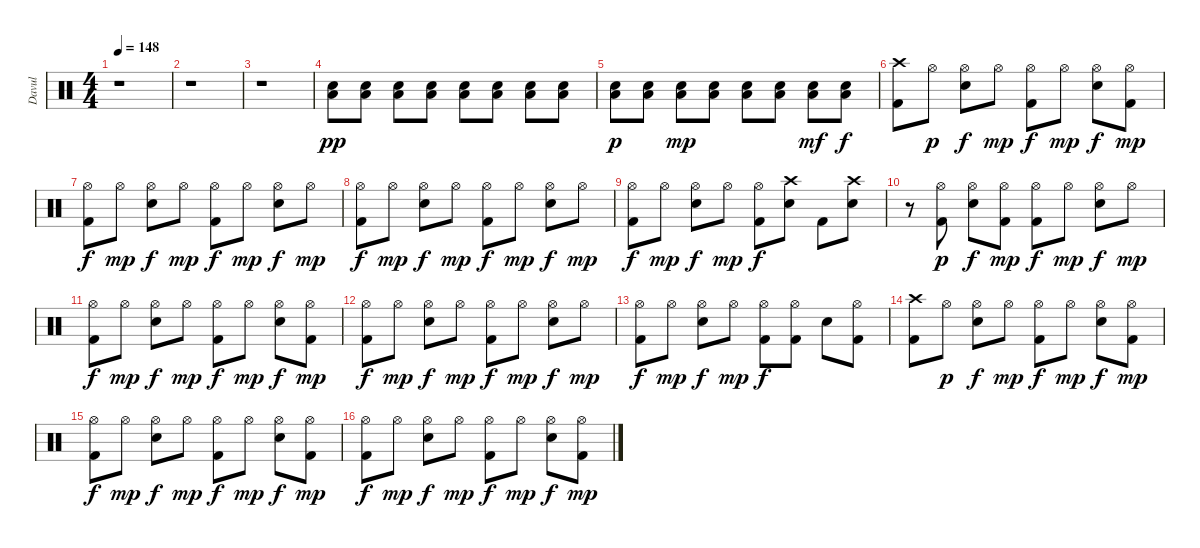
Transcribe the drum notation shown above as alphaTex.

\track ("Davul" "Davul") {instrument percussion}
\staff {score}
\articulation defaults
\ts (4 4)
\tempo 148
\clef neutral
\ks c
r.1{dy f} |
r.1 |
r.1 |
("Low Floor Tom (hit)" "Electric Snare (hit)").8{dy pp} ("Low Floor Tom (hit)" "Electric Snare (hit)").8 ("Low Floor Tom (hit)" "Electric Snare (hit)").8 ("Low Floor Tom (hit)" "Electric Snare (hit)").8 ("Low Floor Tom (hit)" "Electric Snare (hit)").8 ("Low Floor Tom (hit)" "Electric Snare (hit)").8 ("Low Floor Tom (hit)" "Electric Snare (hit)").8 ("Low Floor Tom (hit)" "Electric Snare (hit)").8 |
("Low Floor Tom (hit)" "Electric Snare (hit)").8{dy p} ("Low Floor Tom (hit)" "Electric Snare (hit)").8 ("Low Floor Tom (hit)" "Electric Snare (hit)").8{dy mp} ("Low Floor Tom (hit)" "Electric Snare (hit)").8 ("Low Floor Tom (hit)" "Electric Snare (hit)").8 ("Low Floor Tom (hit)" "Electric Snare (hit)").8 ("Low Floor Tom (hit)" "Electric Snare (hit)").8{dy mf} ("Low Floor Tom (hit)" "Electric Snare (hit)").8{dy f} |
("Crash high (hit)" "Kick (hit) 2").8 "Hi-Hat (open)".8{dy p} ("Hi-Hat (open)" "Electric Snare (hit)").8{dy f} "Hi-Hat (open)".8{dy mp} ("Hi-Hat (open)" "Kick (hit) 2").8{dy f} "Hi-Hat (open)".8{dy mp} ("Hi-Hat (open)" "Electric Snare (hit)").8{dy f} ("Hi-Hat (open)" "Kick (hit) 2").8{dy mp} |
("Hi-Hat (open)" "Kick (hit) 2").8{dy f} "Hi-Hat (open)".8{dy mp} ("Hi-Hat (open)" "Electric Snare (hit)").8{dy f} "Hi-Hat (open)".8{dy mp} ("Hi-Hat (open)" "Kick (hit) 2").8{dy f} "Hi-Hat (open)".8{dy mp} ("Hi-Hat (open)" "Electric Snare (hit)").8{dy f} "Hi-Hat (open)".8{dy mp} |
("Hi-Hat (open)" "Kick (hit) 2").8{dy f} "Hi-Hat (open)".8{dy mp} ("Hi-Hat (open)" "Electric Snare (hit)").8{dy f} "Hi-Hat (open)".8{dy mp} ("Hi-Hat (open)" "Kick (hit) 2").8{dy f} "Hi-Hat (open)".8{dy mp} ("Hi-Hat (open)" "Electric Snare (hit)").8{dy f} "Hi-Hat (open)".8{dy mp} |
("Hi-Hat (open)" "Kick (hit) 2").8{dy f} "Hi-Hat (open)".8{dy mp} ("Hi-Hat (open)" "Electric Snare (hit)").8{dy f} "Hi-Hat (open)".8{dy mp} ("Hi-Hat (open)" "Kick (hit) 2").8{dy f} ("Crash high (hit)" "Electric Snare (hit)").8 "Kick (hit) 2".8 ("Crash high (hit)" "Electric Snare (hit)").8 |
r.8 ("Hi-Hat (open)" "Kick (hit) 2").8{dy p} ("Hi-Hat (open)" "Electric Snare (hit)").8{dy f} ("Hi-Hat (open)" "Kick (hit) 2").8{dy mp} ("Hi-Hat (open)" "Kick (hit) 2").8{dy f} "Hi-Hat (open)".8{dy mp} ("Hi-Hat (open)" "Electric Snare (hit)").8{dy f} "Hi-Hat (open)".8{dy mp} |
("Hi-Hat (open)" "Kick (hit) 2").8{dy f} "Hi-Hat (open)".8{dy mp} ("Hi-Hat (open)" "Electric Snare (hit)").8{dy f} "Hi-Hat (open)".8{dy mp} ("Hi-Hat (open)" "Kick (hit) 2").8{dy f} "Hi-Hat (open)".8{dy mp} ("Hi-Hat (open)" "Electric Snare (hit)").8{dy f} ("Hi-Hat (open)" "Kick (hit) 2").8{dy mp} |
("Hi-Hat (open)" "Kick (hit) 2").8{dy f} "Hi-Hat (open)".8{dy mp} ("Hi-Hat (open)" "Electric Snare (hit)").8{dy f} "Hi-Hat (open)".8{dy mp} ("Hi-Hat (open)" "Kick (hit) 2").8{dy f} "Hi-Hat (open)".8{dy mp} ("Hi-Hat (open)" "Electric Snare (hit)").8{dy f} "Hi-Hat (open)".8{dy mp} |
("Hi-Hat (open)" "Kick (hit) 2").8{dy f} "Hi-Hat (open)".8{dy mp} ("Hi-Hat (open)" "Electric Snare (hit)").8{dy f} "Hi-Hat (open)".8{dy mp} ("Hi-Hat (open)" "Kick (hit) 2").8{dy f} ("Hi-Hat (open)" "Kick (hit) 2").8 "Electric Snare (hit)".8 ("Hi-Hat (open)" "Kick (hit) 2").8 |
("Crash high (hit)" "Kick (hit) 2").8 "Hi-Hat (open)".8{dy p} ("Hi-Hat (open)" "Electric Snare (hit)").8{dy f} "Hi-Hat (open)".8{dy mp} ("Hi-Hat (open)" "Kick (hit) 2").8{dy f} "Hi-Hat (open)".8{dy mp} ("Hi-Hat (open)" "Electric Snare (hit)").8{dy f} ("Hi-Hat (open)" "Kick (hit) 2").8{dy mp} |
("Hi-Hat (open)" "Kick (hit) 2").8{dy f} "Hi-Hat (open)".8{dy mp} ("Hi-Hat (open)" "Electric Snare (hit)").8{dy f} "Hi-Hat (open)".8{dy mp} ("Hi-Hat (open)" "Kick (hit) 2").8{dy f} "Hi-Hat (open)".8{dy mp} ("Hi-Hat (open)" "Electric Snare (hit)").8{dy f} ("Hi-Hat (open)" "Kick (hit) 2").8{dy mp} |
("Hi-Hat (open)" "Kick (hit) 2").8{dy f} "Hi-Hat (open)".8{dy mp} ("Hi-Hat (open)" "Electric Snare (hit)").8{dy f} "Hi-Hat (open)".8{dy mp} ("Hi-Hat (open)" "Kick (hit) 2").8{dy f} "Hi-Hat (open)".8{dy mp} ("Hi-Hat (open)" "Electric Snare (hit)").8{dy f} ("Hi-Hat (open)" "Kick (hit) 2").8{dy mp}
